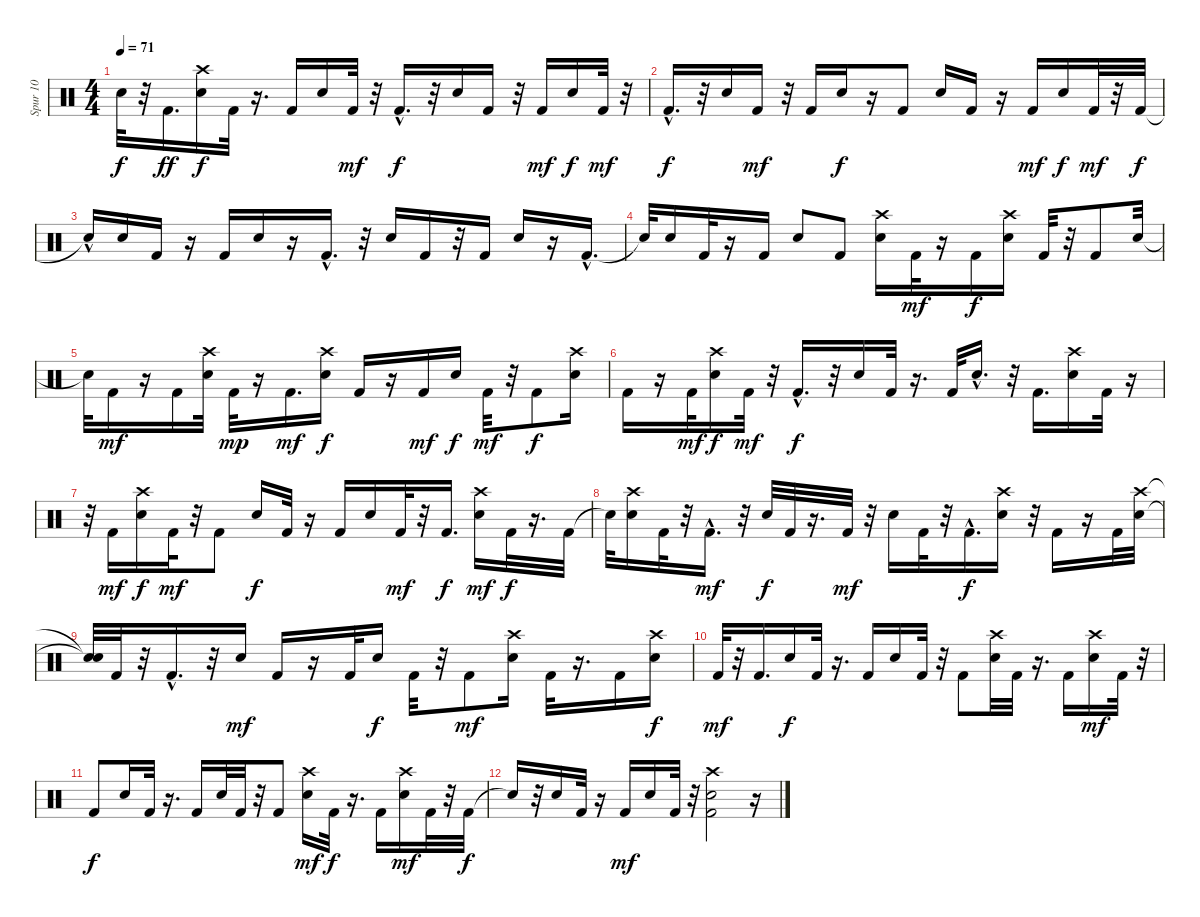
\track ("Spur 10" "Spur 10") {instrument percussion}
\staff {score}
\articulation defaults
\ts (4 4)
\tempo 71
\clef neutral
\ks c "Snare (hit)"{t}.32{dy f}
r.32 "Kick (hit) 2".16{d dy ff} ("Snare (hit) 2" "Crash high (hit)").16{dy f} "Kick (hit) 2".32 r.16{d} "Kick (hit) 2".16 "Snare (hit) 2".16 "Kick (hit) 2".32{dy mf} r.32 "Kick (hit) 2"{hac}.16{d dy f} r.32 "Snare (hit) 2".16 "Kick (hit) 2".16 r.32 "Kick (hit) 2".16{dy mf} "Snare (hit) 2".16{dy f} "Kick (hit) 2".32{dy mf} r.32 |
"Kick (hit) 2"{hac}.16{d dy f} r.32 "Snare (hit) 2".16 "Kick (hit) 2".16{dy mf} r.32 "Kick (hit) 2".16 "Snare (hit) 2".16{dy f} r.16 "Kick (hit) 2".8 "Snare (hit) 2".16 "Kick (hit) 2".16 r.16 "Kick (hit) 2".16{dy mf} "Snare (hit) 2".16{dy f} "Kick (hit) 2".32{dy mf} r.32 "Kick (hit) 2".32{dy f} |
"Snare (hit)"{hac t}.16 "Snare (hit) 2".16 "Kick (hit) 2".16 r.16 "Kick (hit) 2".16 "Snare (hit) 2".16 r.16 "Kick (hit) 2"{hac}.16{d} r.32 "Snare (hit) 2".16 "Kick (hit) 2".16 r.32 "Kick (hit) 2".16 "Snare (hit) 2".16 r.16 "Kick (hit) 2"{hac}.16{d} |
"Snare (hit)"{t}.32 "Snare (hit) 2".16 "Kick (hit) 2".32 r.16 "Kick (hit) 2".16 "Snare (hit) 2".8 "Kick (hit) 2".8 ("Snare (hit) 2" "Crash high (hit)").16 "Kick (hit) 2".32{dy mf} r.16 "Kick (hit) 2".16{dy f} ("Snare (hit) 2" "Crash high (hit)").16 "Kick (hit) 2".32 r.32 "Kick (hit) 2".8 "Snare (hit) 2".32 |
"Snare (hit)"{t}.32 "Kick (hit) 2".16{dy mf} r.16 "Kick (hit) 2".16 ("Crash high (hit)" "Snare (hit) 2").32 "Kick (hit) 2".32{dy mp} r.16 "Kick (hit) 2".16{d dy mf} ("Crash high (hit)" "Snare (hit) 2").16{dy f} "Kick (hit) 2".16 r.16 "Kick (hit) 2".16{dy mf} "Snare (hit) 2".16{dy f} "Kick (hit) 2".32{dy mf} r.32 "Kick (hit) 2".8{dy f} ("Snare (hit) 2" "Crash high (hit)").16 |
"Kick (hit) 2".16 r.16 "Kick (hit) 2".32{dy mf} ("Snare (hit) 2" "Crash high (hit)").16{dy f} "Kick (hit) 2".32{dy mf} r.32 "Kick (hit) 2"{hac}.16{d dy f} r.32 "Snare (hit) 2".16 "Kick (hit) 2".32 r.16{d} "Kick (hit) 2".32 "Snare (hit) 2"{hac}.16{d} r.32 "Kick (hit) 2".16{d} ("Snare (hit) 2" "Crash high (hit)").16 "Kick (hit) 2".32 r.16 |
r.32 "Kick (hit) 2".16{dy mf} ("Snare (hit) 2" "Crash high (hit)").16{dy f} "Kick (hit) 2".32{dy mf} r.32 "Kick (hit) 2".8 "Snare (hit) 2".16{dy f} "Kick (hit) 2".32 r.16 "Kick (hit) 2".16 "Snare (hit) 2".16 "Kick (hit) 2".32{dy mf} r.32 "Kick (hit) 2".16{d dy f} ("Crash high (hit)" "Snare (hit) 2").16{dy mf} "Kick (hit) 2".32{dy f} r.16{d} "Kick (hit) 2".32 |
"Snare (hit)"{t}.32 ("Snare (hit) 2" "Crash high (hit)").16 "Kick (hit) 2".32 r.32 "Kick (hit) 2"{hac}.16{d dy mf} r.32 "Snare (hit) 2".32{dy f} "Kick (hit) 2".32 r.16{d} "Kick (hit) 2".32{dy mf} r.32 "Snare (hit) 2".16 "Kick (hit) 2".32 r.32 "Kick (hit) 2"{hac}.16{d dy f} ("Crash high (hit)" "Snare (hit) 2").16 r.32 "Kick (hit) 2".16 r.16 "Kick (hit) 2".32 ("Crash high (hit)" "Snare (hit) 2").32 |
("Snare (hit)"{t} "Snare (hit)"{t}).32 "Kick (hit) 2".32 r.32 "Kick (hit) 2"{hac}.16{d} r.32 "Snare (hit) 2".16{dy mf} "Kick (hit) 2".16 r.16 "Kick (hit) 2".32 "Snare (hit) 2".16{dy f} "Kick (hit) 2".32 r.32 "Kick (hit) 2".8{dy mf} ("Snare (hit) 2" "Crash high (hit)").16 "Kick (hit) 2".32 r.16{d} "Kick (hit) 2".16 ("Crash high (hit)" "Snare (hit) 2").16{dy f} |
"Kick (hit) 2".32{dy mf} r.32 "Kick (hit) 2".16{d} "Snare (hit) 2".16{dy f} "Kick (hit) 2".32 r.16{d} "Kick (hit) 2".16 "Snare (hit) 2".16 "Kick (hit) 2".32 r.32 "Kick (hit) 2".8 ("Snare (hit) 2" "Crash high (hit)").32 "Kick (hit) 2".32 r.16{d} "Kick (hit) 2".16 ("Crash high (hit)" "Snare (hit) 2").16{dy mf} "Kick (hit) 2".32 r.32 |
"Kick (hit) 2".8{dy f} "Snare (hit) 2".16 "Kick (hit) 2".32 r.16{d} "Kick (hit) 2".16 "Snare (hit) 2".32 "Kick (hit) 2".32 r.32 "Kick (hit) 2".8 ("Crash high (hit)" "Snare (hit) 2").16{dy mf} "Kick (hit) 2".32{dy f} r.16{d} "Kick (hit) 2".16 ("Crash high (hit)" "Snare (hit) 2").16{dy mf} "Kick (hit) 2".32 r.32 "Kick (hit) 2".32{dy f} |
"Snare (hit)"{t}.16 r.32 "Snare (hit) 2".16 "Kick (hit) 2".32 r.16 "Kick (hit) 2".16{dy mf} "Snare (hit) 2".16 "Kick (hit) 2".32 r.32 ("Kick (hit) 2" "Crash high (hit)" "Snare (hit) 2").2 r.16
